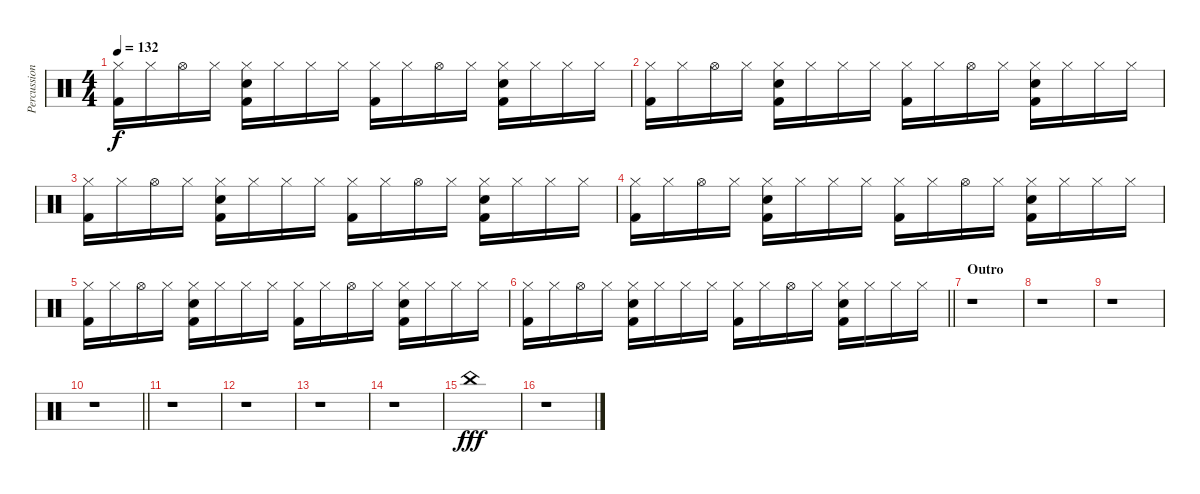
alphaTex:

\track ("Percussion I" "Percussion") {instrument percussion}
\staff {score}
\articulation defaults
\ts (4 4)
\tempo 132
\clef neutral
\ks c
("Hi-Hat (closed)" "Kick (hit) 2").16{dy f} "Hi-Hat (closed)".16 "Hi-Hat (open)".16 "Hi-Hat (closed)".16 ("Hi-Hat (closed)" "Hand Clap (hit)" "Kick (hit) 2").16 "Hi-Hat (closed)".16 "Hi-Hat (closed)".16 "Hi-Hat (closed)".16 ("Hi-Hat (closed)" "Kick (hit) 2").16 "Hi-Hat (closed)".16 "Hi-Hat (open)".16 "Hi-Hat (closed)".16 ("Hi-Hat (closed)" "Hand Clap (hit)" "Kick (hit) 2").16 "Hi-Hat (closed)".16 "Hi-Hat (closed)".16 "Hi-Hat (closed)".16 |
("Hi-Hat (closed)" "Kick (hit) 2").16 "Hi-Hat (closed)".16 "Hi-Hat (open)".16 "Hi-Hat (closed)".16 ("Hi-Hat (closed)" "Hand Clap (hit)" "Kick (hit) 2").16 "Hi-Hat (closed)".16 "Hi-Hat (closed)".16 "Hi-Hat (closed)".16 ("Hi-Hat (closed)" "Kick (hit) 2").16 "Hi-Hat (closed)".16 "Hi-Hat (open)".16 "Hi-Hat (closed)".16 ("Hi-Hat (closed)" "Hand Clap (hit)" "Kick (hit) 2").16 "Hi-Hat (closed)".16 "Hi-Hat (closed)".16 "Hi-Hat (closed)".16 |
("Hi-Hat (closed)" "Kick (hit) 2").16 "Hi-Hat (closed)".16 "Hi-Hat (open)".16 "Hi-Hat (closed)".16 ("Hi-Hat (closed)" "Hand Clap (hit)" "Kick (hit) 2").16 "Hi-Hat (closed)".16 "Hi-Hat (closed)".16 "Hi-Hat (closed)".16 ("Hi-Hat (closed)" "Kick (hit) 2").16 "Hi-Hat (closed)".16 "Hi-Hat (open)".16 "Hi-Hat (closed)".16 ("Hi-Hat (closed)" "Hand Clap (hit)" "Kick (hit) 2").16 "Hi-Hat (closed)".16 "Hi-Hat (closed)".16 "Hi-Hat (closed)".16 |
("Hi-Hat (closed)" "Kick (hit) 2").16 "Hi-Hat (closed)".16 "Hi-Hat (open)".16 "Hi-Hat (closed)".16 ("Hi-Hat (closed)" "Hand Clap (hit)" "Kick (hit) 2").16 "Hi-Hat (closed)".16 "Hi-Hat (closed)".16 "Hi-Hat (closed)".16 ("Hi-Hat (closed)" "Kick (hit) 2").16 "Hi-Hat (closed)".16 "Hi-Hat (open)".16 "Hi-Hat (closed)".16 ("Hi-Hat (closed)" "Hand Clap (hit)" "Kick (hit) 2").16 "Hi-Hat (closed)".16 "Hi-Hat (closed)".16 "Hi-Hat (closed)".16 |
("Hi-Hat (closed)" "Kick (hit) 2").16 "Hi-Hat (closed)".16 "Hi-Hat (open)".16 "Hi-Hat (closed)".16 ("Hi-Hat (closed)" "Hand Clap (hit)" "Kick (hit) 2").16 "Hi-Hat (closed)".16 "Hi-Hat (closed)".16 "Hi-Hat (closed)".16 ("Hi-Hat (closed)" "Kick (hit) 2").16 "Hi-Hat (closed)".16 "Hi-Hat (open)".16 "Hi-Hat (closed)".16 ("Hi-Hat (closed)" "Hand Clap (hit)" "Kick (hit) 2").16 "Hi-Hat (closed)".16 "Hi-Hat (closed)".16 "Hi-Hat (closed)".16 |
\barLineRight lightlight
("Hi-Hat (closed)" "Kick (hit) 2").16 "Hi-Hat (closed)".16 "Hi-Hat (open)".16 "Hi-Hat (closed)".16 ("Hi-Hat (closed)" "Hand Clap (hit)" "Kick (hit) 2").16 "Hi-Hat (closed)".16 "Hi-Hat (closed)".16 "Hi-Hat (closed)".16 ("Hi-Hat (closed)" "Kick (hit) 2").16 "Hi-Hat (closed)".16 "Hi-Hat (open)".16 "Hi-Hat (closed)".16 ("Hi-Hat (closed)" "Hand Clap (hit)" "Kick (hit) 2").16 "Hi-Hat (closed)".16 "Hi-Hat (closed)".16 "Hi-Hat (closed)".16 |
\section ("" "Outro")
r.1 |
r.1 |
r.1 |
\barLineRight lightlight
r.1 |
r.1 |
r.1 |
r.1 |
r.1 |
"China (hit)".1{dy fff volume 16} |
r.1
